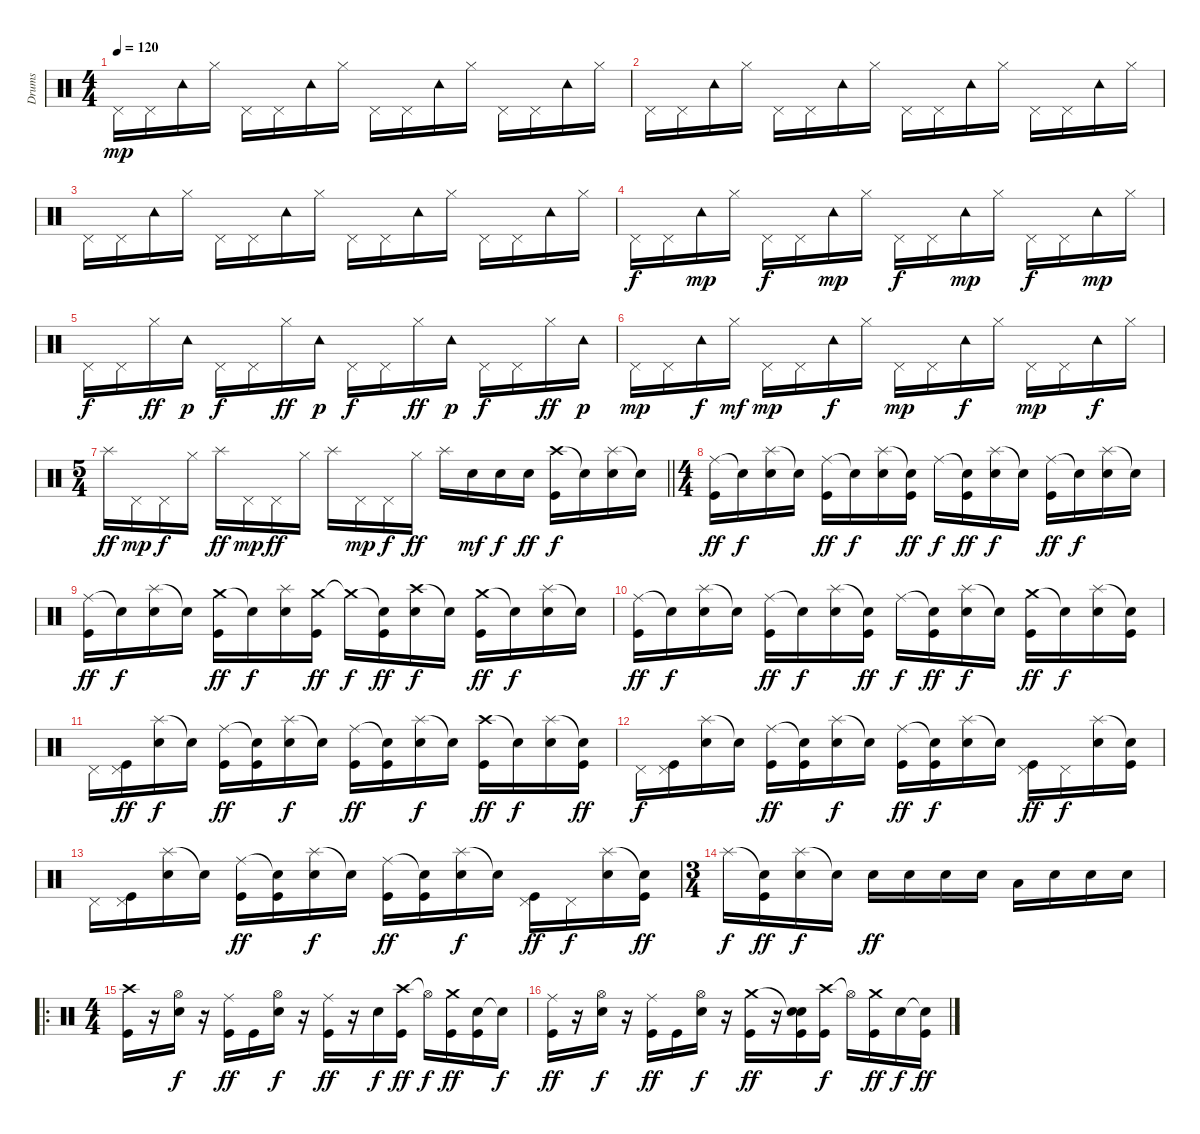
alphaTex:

\track ("Drums" "Drums") {instrument percussion}
\staff {score}
\articulation defaults
\ts (4 4)
\tempo 120
\clef neutral
\ks c "Pedal Hi-Hat (hit)".16{dy mp} "Pedal Hi-Hat (hit)".16 "Tambourine (hit)".16 "Hi-Hat (closed)".16 "Pedal Hi-Hat (hit)".16 "Pedal Hi-Hat (hit)".16 "Tambourine (hit)".16 "Hi-Hat (closed)".16 "Pedal Hi-Hat (hit)".16 "Pedal Hi-Hat (hit)".16 "Tambourine (hit)".16 "Hi-Hat (closed)".16 "Pedal Hi-Hat (hit)".16 "Pedal Hi-Hat (hit)".16 "Tambourine (hit)".16 "Hi-Hat (closed)".16
|
"Pedal Hi-Hat (hit)".16 "Pedal Hi-Hat (hit)".16 "Tambourine (hit)".16 "Hi-Hat (closed)".16 "Pedal Hi-Hat (hit)".16 "Pedal Hi-Hat (hit)".16 "Tambourine (hit)".16 "Hi-Hat (closed)".16 "Pedal Hi-Hat (hit)".16 "Pedal Hi-Hat (hit)".16 "Tambourine (hit)".16 "Hi-Hat (closed)".16 "Pedal Hi-Hat (hit)".16 "Pedal Hi-Hat (hit)".16 "Tambourine (hit)".16 "Hi-Hat (closed)".16 |
"Pedal Hi-Hat (hit)".16 "Pedal Hi-Hat (hit)".16 "Tambourine (hit)".16 "Hi-Hat (closed)".16 "Pedal Hi-Hat (hit)".16 "Pedal Hi-Hat (hit)".16 "Tambourine (hit)".16 "Hi-Hat (closed)".16 "Pedal Hi-Hat (hit)".16 "Pedal Hi-Hat (hit)".16 "Tambourine (hit)".16 "Hi-Hat (closed)".16 "Pedal Hi-Hat (hit)".16 "Pedal Hi-Hat (hit)".16 "Tambourine (hit)".16 "Hi-Hat (closed)".16 |
"Pedal Hi-Hat (hit)".16{dy f} "Pedal Hi-Hat (hit)".16 "Tambourine (hit)".16{dy mp} "Hi-Hat (closed)".16 "Pedal Hi-Hat (hit)".16{dy f} "Pedal Hi-Hat (hit)".16 "Tambourine (hit)".16{dy mp} "Hi-Hat (closed)".16 "Pedal Hi-Hat (hit)".16{dy f} "Pedal Hi-Hat (hit)".16 "Tambourine (hit)".16{dy mp} "Hi-Hat (closed)".16 "Pedal Hi-Hat (hit)".16{dy f} "Pedal Hi-Hat (hit)".16 "Tambourine (hit)".16{dy mp} "Hi-Hat (closed)".16 |
"Pedal Hi-Hat (hit)".16{dy f} "Pedal Hi-Hat (hit)".16 "Hi-Hat (closed)".16{dy ff} "Tambourine (hit)".16{dy p} "Pedal Hi-Hat (hit)".16{dy f} "Pedal Hi-Hat (hit)".16 "Hi-Hat (closed)".16{dy ff} "Tambourine (hit)".16{dy p} "Pedal Hi-Hat (hit)".16{dy f} "Pedal Hi-Hat (hit)".16 "Hi-Hat (closed)".16{dy ff} "Tambourine (hit)".16{dy p} "Pedal Hi-Hat (hit)".16{dy f} "Pedal Hi-Hat (hit)".16 "Hi-Hat (closed)".16{dy ff} "Tambourine (hit)".16{dy p} |
"Pedal Hi-Hat (hit)".16{dy mp} "Pedal Hi-Hat (hit)".16 "Tambourine (hit)".16{dy f} "Hi-Hat (closed)".16{dy mf} "Pedal Hi-Hat (hit)".16{dy mp} "Pedal Hi-Hat (hit)".16 "Tambourine (hit)".16{dy f} "Hi-Hat (closed)".16 "Pedal Hi-Hat (hit)".16{dy mp} "Pedal Hi-Hat (hit)".16 "Tambourine (hit)".16{dy f} "Hi-Hat (closed)".16 "Pedal Hi-Hat (hit)".16{dy mp} "Pedal Hi-Hat (hit)".16 "Tambourine (hit)".16{dy f} "Hi-Hat (closed)".16 |
\ts (5 4)
\barLineRight lightlight "Splash (hit)".16{dy ff} "Pedal Hi-Hat (hit)".16{dy mp} "Pedal Hi-Hat (hit)".16{dy f} "Hi-Hat (closed)".16 "Splash (hit)".16{dy ff} "Pedal Hi-Hat (hit)".16{dy mp} "Pedal Hi-Hat (hit)".16{dy ff} "Hi-Hat (closed)".16 "Splash (hit)".16 "Pedal Hi-Hat (hit)".16{dy mp} "Pedal Hi-Hat (hit)".16{dy f} "Hi-Hat (closed)".16{dy ff} "Splash (hit)".16 "Snare (hit) 2".16{dy mf} "Snare (hit) 2".16{dy f} "Snare (hit) 2".16{dy ff}
("Crash high (hit)" "Kick (hit)").16{dy f} "Snare (hit)"{t}.16 ("Splash (hit)" "Electric Snare (hit)").16 "Snare (hit)"{t}.16 |
\ts (4 4)
\section ("" "")
("Ride (middle)" "Kick (hit)").16{dy ff} "Snare (hit)"{t}.16{dy f} ("Splash (hit)" "Electric Snare (hit)").16 "Snare (hit)"{t}.16 ("Ride (middle)" "Kick (hit)").16{dy ff} "Snare (hit)"{t}.16{dy f} ("Splash (hit)" "Electric Snare (hit)").16 ("Snare (hit)"{t} "Kick (hit)").16{dy ff} "Ride (middle)".16{dy f} ("Snare (hit)"{t} "Kick (hit)").16{dy ff} ("Splash (hit)" "Electric Snare (hit)").16{dy f} "Snare (hit)"{t}.16 ("Ride (middle)" "Kick (hit)").16{dy ff} "Snare (hit)"{t}.16{dy f} ("Splash (hit)" "Electric Snare (hit)").16 "Snare (hit)"{t}.16 |
("Ride (middle)" "Kick (hit)").16{dy ff} "Snare (hit)"{t}.16{dy f} ("Splash (hit)" "Electric Snare (hit)").16 "Snare (hit)"{t}.16 ("Crash medium (hit)" "Kick (hit)").16{dy ff} "Snare (hit)"{t}.16{dy f} ("Splash (hit)" "Electric Snare (hit)").16 ("Crash medium (hit)" "Kick (hit)").16{dy ff} "Crash medium (hit)"{t}.16{dy f} ("Snare (hit)"{t} "Kick (hit)").16{dy ff} ("Crash high (hit)" "Electric Snare (hit)").16{dy f} "Snare (hit)"{t}.16 ("Crash medium (hit)" "Kick (hit)").16{dy ff} "Snare (hit)"{t}.16{dy f} ("Splash (hit)" "Electric Snare (hit)").16 "Snare (hit)"{t}.16 |
("Ride (middle)" "Kick (hit)").16{dy ff} "Snare (hit)"{t}.16{dy f} ("Splash (hit)" "Electric Snare (hit)").16 "Snare (hit)"{t}.16 ("Ride (middle)" "Kick (hit)").16{dy ff} "Snare (hit)"{t}.16{dy f} ("Splash (hit)" "Electric Snare (hit)").16 ("Snare (hit)"{t} "Kick (hit)").16{dy ff} "Ride (middle)".16{dy f} ("Snare (hit)"{t} "Kick (hit)").16{dy ff} ("Splash (hit)" "Electric Snare (hit)").16{dy f} "Snare (hit)"{t}.16 ("Crash medium (hit)" "Kick (hit)").16{dy ff} "Snare (hit)"{t}.16{dy f} ("Splash (hit)" "Electric Snare (hit)").16 ("Snare (hit)"{t} "Kick (hit)").16 |
"Pedal Hi-Hat (hit)".16 ("Pedal Hi-Hat (hit)" "Kick (hit)").16{dy ff} ("Splash (hit)" "Electric Snare (hit)").16{dy f} "Snare (hit)"{t}.16 ("Ride (middle)" "Kick (hit)").16{dy ff} ("Snare (hit)"{t} "Kick (hit)").16 ("Splash (hit)" "Electric Snare (hit)").16{dy f} "Snare (hit)"{t}.16 ("Ride (middle)" "Kick (hit)").16{dy ff} ("Snare (hit)"{t} "Kick (hit)").16 ("Splash (hit)" "Electric Snare (hit)").16{dy f} "Snare (hit)"{t}.16 ("Crash high (hit)" "Kick (hit)").16{dy ff} "Snare (hit)"{t}.16{dy f} ("Splash (hit)" "Electric Snare (hit)").16 ("Snare (hit)"{t} "Kick (hit)").16{dy ff} |
"Pedal Hi-Hat (hit)".16{dy f} ("Pedal Hi-Hat (hit)" "Kick (hit)").16 ("Splash (hit)" "Electric Snare (hit)").16 "Snare (hit)"{t}.16 ("Ride (middle)" "Kick (hit)").16{dy ff} ("Snare (hit)"{t} "Kick (hit)").16 ("Splash (hit)" "Electric Snare (hit)").16{dy f} "Snare (hit)"{t}.16 ("Ride (middle)" "Kick (hit)").16{dy ff} ("Snare (hit)"{t} "Kick (hit)").16{dy f} ("Splash (hit)" "Electric Snare (hit)").16 "Snare (hit)"{t}.16 ("Pedal Hi-Hat (hit)" "Kick (hit)").16{dy ff} "Pedal Hi-Hat (hit)".16{dy f} ("Splash (hit)" "Electric Snare (hit)").16 ("Snare (hit)"{t} "Kick (hit)").16 |
"Pedal Hi-Hat (hit)".16 ("Pedal Hi-Hat (hit)" "Kick (hit)").16 ("Splash (hit)" "Electric Snare (hit)").16 "Snare (hit)"{t}.16 ("Ride (middle)" "Kick (hit)").16{dy ff} ("Snare (hit)"{t} "Kick (hit)").16 ("Splash (hit)" "Electric Snare (hit)").16{dy f} "Snare (hit)"{t}.16 ("Ride (middle)" "Kick (hit)").16{dy ff} ("Snare (hit)"{t} "Kick (hit)").16 ("Splash (hit)" "Electric Snare (hit)").16{dy f} "Snare (hit)"{t}.16 ("Pedal Hi-Hat (hit)" "Kick (hit)").16{dy ff} "Pedal Hi-Hat (hit)".16{dy f} ("Splash (hit)" "Electric Snare (hit)").16 ("Snare (hit)"{t} "Kick (hit)").16{dy ff} |
\ts (3 4)
"Splash (hit)".16{dy f} ("Snare (hit)"{t} "Kick (hit)").16{dy ff} ("Splash (hit)" "Electric Snare (hit)").16{dy f} "Snare (hit)"{t}.16 "Snare (hit) 2".16{dy ff} "Snare (hit) 2".16 "Snare (hit) 2".16 "Snare (hit) 2".16 "Low Tom (hit)".16 "Snare (hit) 2".16 "Snare (hit) 2".16 "Snare (hit) 2".16 |
\ro
\ts (4 4)
("Crash high (hit)" "Kick (hit)").16 r.16 ("Hi-Hat (open)" "Electric Snare (hit)").16{dy f} r.16 ("Ride (middle)" "Kick (hit)").16{dy ff} "Kick (hit)".16 ("Hi-Hat (open)" "Electric Snare (hit)").16{dy f} r.16 ("Ride (middle)" "Kick (hit)").16{dy ff} r.16 "Electric Snare (hit)".16{dy f} ("Crash high (hit)" "Kick (hit)").16{dy ff} "Hi-Hat (open)"{t}.16{dy f} ("Crash medium (hit)" "Kick (hit)").16{dy ff} ("Electric Snare (hit)" "Kick (hit)").16 "Snare (hit)"{t}.16{dy f} |
("Ride (middle)" "Kick (hit)").16{dy ff} r.16 ("Hi-Hat (open)" "Electric Snare (hit)").16{dy f} r.16 ("Ride (middle)" "Kick (hit)").16{dy ff} "Kick (hit)".16 ("Hi-Hat (open)" "Electric Snare (hit)").16{dy f} r.16 ("Crash medium (hit)" "Kick (hit)").16{dy ff} r.16 ("Snare (hit)"{t} "Electric Snare (hit)" "Kick (hit)").16 ("Crash high (hit)" "Kick (hit)").16{dy f} "Hi-Hat (open)"{t}.16 ("Crash medium (hit)" "Kick (hit)").16{dy ff} "Electric Snare (hit)".16{dy f} ("Snare (hit)"{t} "Kick (hit)").16{dy ff}
